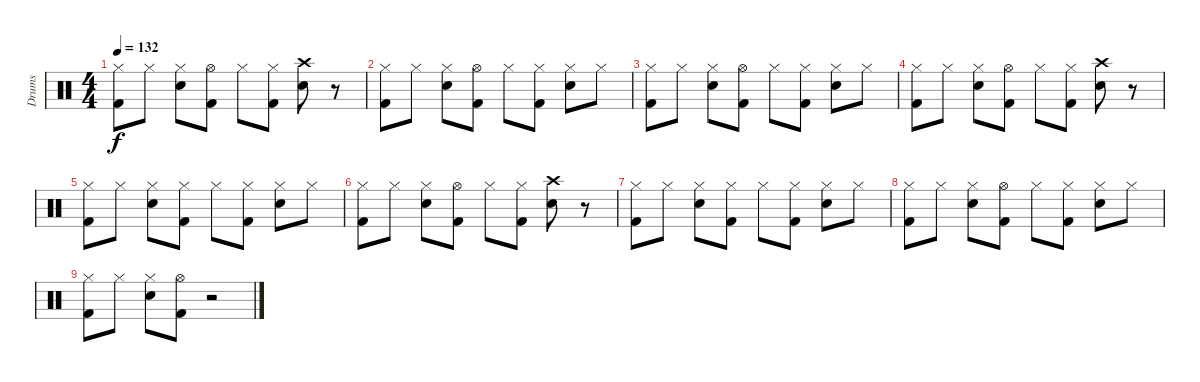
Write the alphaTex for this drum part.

\track ("Drums" "Drums") {instrument percussion}
\staff {score}
\articulation defaults
\ts (4 4)
\tempo 132
\clef neutral
\ks c
("Hi-Hat (closed)" "Kick (hit) 2").8{dy f} "Hi-Hat (closed)".8 ("Hi-Hat (closed)" "Electric Snare (hit)").8 ("Hi-Hat (open)" "Kick (hit) 2").8 "Hi-Hat (closed)".8 ("Hi-Hat (closed)" "Kick (hit) 2").8 ("Crash high (hit)" "Electric Snare (hit)").8 r.8 |
("Hi-Hat (closed)" "Kick (hit) 2").8 "Hi-Hat (closed)".8 ("Hi-Hat (closed)" "Electric Snare (hit)").8 ("Hi-Hat (open)" "Kick (hit) 2").8 "Hi-Hat (closed)".8 ("Hi-Hat (closed)" "Kick (hit) 2").8 ("Hi-Hat (closed)" "Electric Snare (hit)").8 "Hi-Hat (closed)".8 |
("Hi-Hat (closed)" "Kick (hit) 2").8 "Hi-Hat (closed)".8 ("Hi-Hat (closed)" "Electric Snare (hit)").8 ("Hi-Hat (open)" "Kick (hit) 2").8 "Hi-Hat (closed)".8 ("Hi-Hat (closed)" "Kick (hit) 2").8 ("Hi-Hat (closed)" "Electric Snare (hit)").8 "Hi-Hat (closed)".8 |
("Hi-Hat (closed)" "Kick (hit) 2").8 "Hi-Hat (closed)".8 ("Hi-Hat (closed)" "Electric Snare (hit)").8 ("Hi-Hat (open)" "Kick (hit) 2").8 "Hi-Hat (closed)".8 ("Hi-Hat (closed)" "Kick (hit) 2").8 ("Crash high (hit)" "Electric Snare (hit)").8 r.8 |
("Hi-Hat (closed)" "Kick (hit) 2").8 "Hi-Hat (closed)".8 ("Hi-Hat (closed)" "Electric Snare (hit)").8 ("Hi-Hat (closed)" "Kick (hit) 2").8 "Hi-Hat (closed)".8 ("Hi-Hat (closed)" "Kick (hit) 2").8 ("Hi-Hat (closed)" "Electric Snare (hit)").8 "Hi-Hat (closed)".8 |
("Hi-Hat (closed)" "Kick (hit) 2").8 "Hi-Hat (closed)".8 ("Hi-Hat (closed)" "Electric Snare (hit)").8 ("Hi-Hat (open)" "Kick (hit) 2").8 "Hi-Hat (closed)".8 ("Hi-Hat (closed)" "Kick (hit) 2").8 ("Crash high (hit)" "Electric Snare (hit)").8 r.8 |
("Hi-Hat (closed)" "Kick (hit) 2").8 "Hi-Hat (closed)".8 ("Hi-Hat (closed)" "Electric Snare (hit)").8 ("Hi-Hat (closed)" "Kick (hit) 2").8 "Hi-Hat (closed)".8 ("Hi-Hat (closed)" "Kick (hit) 2").8 ("Hi-Hat (closed)" "Electric Snare (hit)").8 "Hi-Hat (closed)".8 |
("Hi-Hat (closed)" "Kick (hit) 2").8 "Hi-Hat (closed)".8 ("Hi-Hat (closed)" "Electric Snare (hit)").8 ("Hi-Hat (open)" "Kick (hit) 2").8 "Hi-Hat (closed)".8 ("Hi-Hat (closed)" "Kick (hit) 2").8 ("Hi-Hat (closed)" "Electric Snare (hit)").8 "Hi-Hat (closed)".8 |
("Hi-Hat (closed)" "Kick (hit) 2").8 "Hi-Hat (closed)".8 ("Hi-Hat (closed)" "Electric Snare (hit)").8 ("Hi-Hat (open)" "Kick (hit) 2").8 r.2
